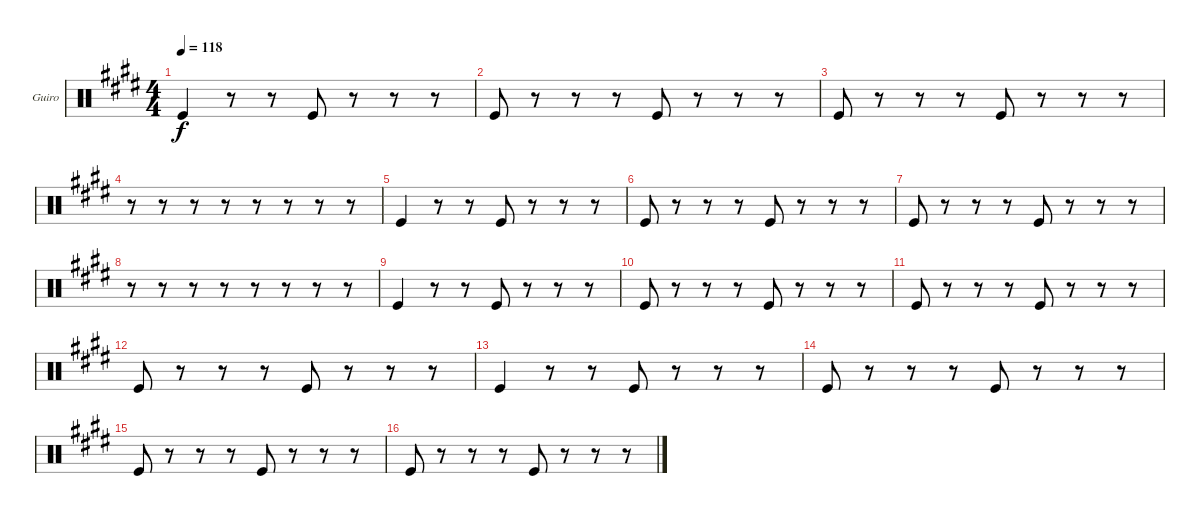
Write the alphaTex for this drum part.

\bracketExtendMode groupsimilarinstruments
\firstSystemTrackNameOrientation horizontal
\otherSystemsTrackNameOrientation horizontal
\track ("Guiro" "Guiro") {instrument percussion}
\staff {score}
\articulation defaults
\ts (4 4)
\tempo 118
\clef neutral
\ks e "Kick (hit)".4{dy f}
r.8 r.8 "Kick (hit)".8 r.8 r.8 r.8 |
"Kick (hit)".8 r.8 r.8 r.8 "Kick (hit)".8 r.8 r.8 r.8 |
"Kick (hit)".8 r.8 r.8 r.8 "Kick (hit)".8 r.8 r.8 r.8 |
r.8 r.8 r.8 r.8 r.8 r.8 r.8 r.8 |
"Kick (hit)".4 r.8 r.8 "Kick (hit)".8 r.8 r.8 r.8 |
"Kick (hit)".8 r.8 r.8 r.8 "Kick (hit)".8 r.8 r.8 r.8 |
"Kick (hit)".8 r.8 r.8 r.8 "Kick (hit)".8 r.8 r.8 r.8 |
r.8 r.8 r.8 r.8 r.8 r.8 r.8 r.8 |
"Kick (hit)".4 r.8 r.8 "Kick (hit)".8 r.8 r.8 r.8 |
"Kick (hit)".8 r.8 r.8 r.8 "Kick (hit)".8 r.8 r.8 r.8 |
"Kick (hit)".8 r.8 r.8 r.8 "Kick (hit)".8 r.8 r.8 r.8 |
"Kick (hit)".8 r.8 r.8 r.8 "Kick (hit)".8 r.8 r.8 r.8 |
"Kick (hit)".4 r.8 r.8 "Kick (hit)".8 r.8 r.8 r.8 |
"Kick (hit)".8 r.8 r.8 r.8 "Kick (hit)".8 r.8 r.8 r.8 |
"Kick (hit)".8 r.8 r.8 r.8 "Kick (hit)".8 r.8 r.8 r.8 |
"Kick (hit)".8 r.8 r.8 r.8 "Kick (hit)".8 r.8 r.8 r.8
